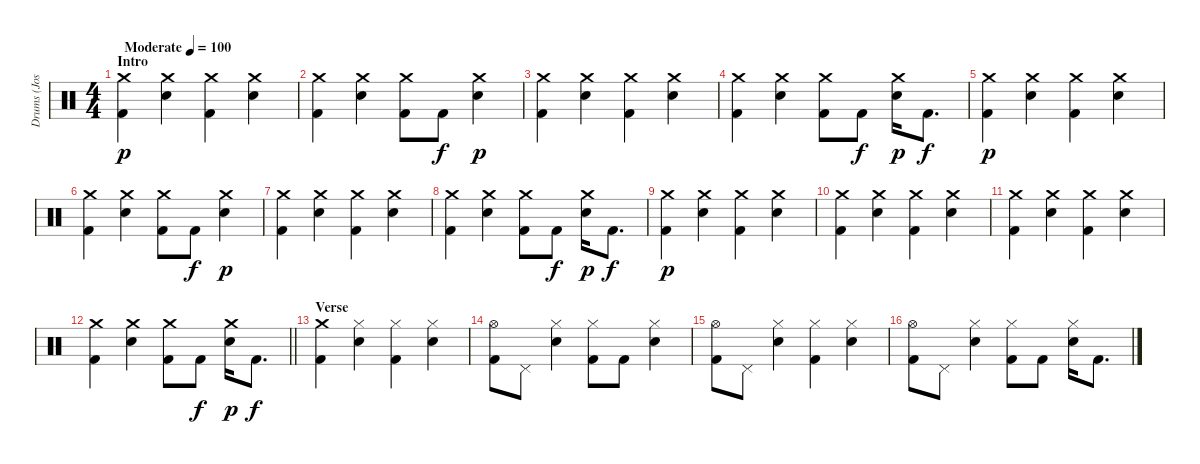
\track ("Drums (Josh Freese)" "Drums (Jos") {instrument percussion}
\staff {score}
\articulation defaults
\ts (4 4)
\section ("" "Intro")
\tempo (100 "Moderate")
\clef neutral
\ks c
("Crash medium (hit)" "Kick (hit) 2").4{dy p} ("Crash medium (hit)" "Electric Snare (hit)").4 ("Crash medium (hit)" "Kick (hit) 2").4 ("Crash medium (hit)" "Electric Snare (hit)").4 |
("Crash medium (hit)" "Kick (hit) 2").4 ("Crash medium (hit)" "Electric Snare (hit)").4 ("Crash medium (hit)" "Kick (hit) 2").8 "Kick (hit) 2".8{dy f} ("Crash medium (hit)" "Electric Snare (hit)").4{dy p} |
("Crash medium (hit)" "Kick (hit) 2").4 ("Crash medium (hit)" "Electric Snare (hit)").4 ("Crash medium (hit)" "Kick (hit) 2").4 ("Crash medium (hit)" "Electric Snare (hit)").4 |
("Crash medium (hit)" "Kick (hit) 2").4 ("Crash medium (hit)" "Electric Snare (hit)").4 ("Crash medium (hit)" "Kick (hit) 2").8 "Kick (hit) 2".8{dy f} ("Crash medium (hit)" "Electric Snare (hit)").16{dy p} "Kick (hit) 2".8{d dy f} |
("Crash medium (hit)" "Kick (hit) 2").4{dy p} ("Crash medium (hit)" "Electric Snare (hit)").4 ("Crash medium (hit)" "Kick (hit) 2").4 ("Crash medium (hit)" "Electric Snare (hit)").4 |
("Crash medium (hit)" "Kick (hit) 2").4 ("Crash medium (hit)" "Electric Snare (hit)").4 ("Crash medium (hit)" "Kick (hit) 2").8 "Kick (hit) 2".8{dy f} ("Crash medium (hit)" "Electric Snare (hit)").4{dy p} |
("Crash medium (hit)" "Kick (hit) 2").4 ("Crash medium (hit)" "Electric Snare (hit)").4 ("Crash medium (hit)" "Kick (hit) 2").4 ("Crash medium (hit)" "Electric Snare (hit)").4 |
("Crash medium (hit)" "Kick (hit) 2").4 ("Crash medium (hit)" "Electric Snare (hit)").4 ("Crash medium (hit)" "Kick (hit) 2").8 "Kick (hit) 2".8{dy f} ("Crash medium (hit)" "Electric Snare (hit)").16{dy p} "Kick (hit) 2".8{d dy f} |
("Crash medium (hit)" "Kick (hit) 2").4{dy p} ("Crash medium (hit)" "Electric Snare (hit)").4 ("Crash medium (hit)" "Kick (hit) 2").4 ("Crash medium (hit)" "Electric Snare (hit)").4 |
("Crash medium (hit)" "Kick (hit) 2").4 ("Crash medium (hit)" "Electric Snare (hit)").4 ("Crash medium (hit)" "Kick (hit) 2").4 ("Crash medium (hit)" "Electric Snare (hit)").4 |
("Crash medium (hit)" "Kick (hit) 2").4 ("Crash medium (hit)" "Electric Snare (hit)").4 ("Crash medium (hit)" "Kick (hit) 2").4 ("Crash medium (hit)" "Electric Snare (hit)").4 |
\barLineRight lightlight
("Crash medium (hit)" "Kick (hit) 2").4 ("Crash medium (hit)" "Electric Snare (hit)").4 ("Crash medium (hit)" "Kick (hit) 2").8 "Kick (hit) 2".8{dy f} ("Crash medium (hit)" "Electric Snare (hit)").16{dy p} "Kick (hit) 2".8{d dy f} |
\section ("" "Verse")
("Crash medium (hit)" "Kick (hit) 2").4 ("Hi-Hat (closed)" "Electric Snare (hit)").4 ("Hi-Hat (closed)" "Kick (hit) 2").4 ("Hi-Hat (closed)" "Electric Snare (hit)").4 |
("Hi-Hat (open)" "Kick (hit) 2").8 "Pedal Hi-Hat (hit)".8 ("Hi-Hat (closed)" "Electric Snare (hit)").4 ("Hi-Hat (closed)" "Kick (hit) 2").8 "Kick (hit) 2".8 ("Hi-Hat (closed)" "Electric Snare (hit)").4 |
("Hi-Hat (open)" "Kick (hit) 2").8 "Pedal Hi-Hat (hit)".8 ("Hi-Hat (closed)" "Electric Snare (hit)").4 ("Hi-Hat (closed)" "Kick (hit) 2").4 ("Hi-Hat (closed)" "Electric Snare (hit)").4 |
("Hi-Hat (open)" "Kick (hit) 2").8 "Pedal Hi-Hat (hit)".8 ("Hi-Hat (closed)" "Electric Snare (hit)").4 ("Hi-Hat (closed)" "Kick (hit) 2").8 "Kick (hit) 2".8 ("Hi-Hat (closed)" "Electric Snare (hit)").16 "Kick (hit) 2".8{d}
